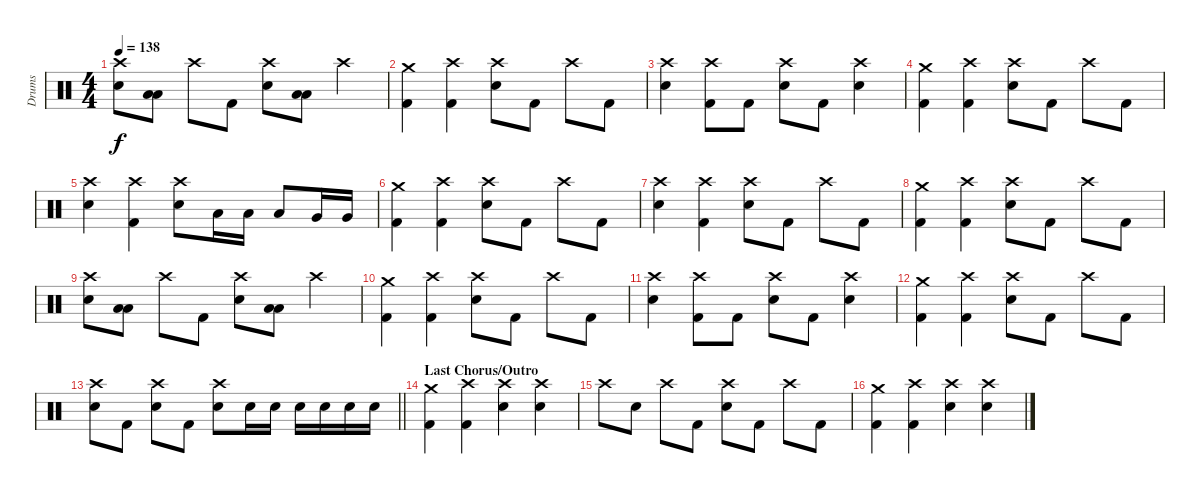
\track ("Drums" "Drums") {instrument percussion}
\staff {score}
\articulation defaults
\ts (4 4)
\tempo 138
\clef neutral
\ks c
("Crash high (hit)" "Electric Snare (hit)").8{dy f} ("Low Tom (hit)" "Low Tom (hit)").8 "Crash high (hit)".8 "Kick (hit) 2".8 ("Crash high (hit)" "Electric Snare (hit)").8 ("Low Tom (hit)" "Low Tom (hit)").8 "Crash high (hit)".4 |
("Crash medium (hit)" "Kick (hit) 2").4 ("Crash high (hit)" "Kick (hit) 2").4 ("Crash high (hit)" "Electric Snare (hit)").8 "Kick (hit) 2".8 "Crash high (hit)".8 "Kick (hit) 2".8 |
("Crash high (hit)" "Electric Snare (hit)").4 ("Crash high (hit)" "Kick (hit) 2").8 "Kick (hit) 2".8 ("Crash high (hit)" "Electric Snare (hit)").8 "Kick (hit) 2".8 ("Crash high (hit)" "Electric Snare (hit)").4 |
("Crash medium (hit)" "Kick (hit) 2").4 ("Crash high (hit)" "Kick (hit) 2").4 ("Crash high (hit)" "Electric Snare (hit)").8 "Kick (hit) 2".8 "Crash high (hit)".8 "Kick (hit) 2".8 |
("Crash high (hit)" "Electric Snare (hit)").4 ("Crash high (hit)" "Kick (hit) 2").4 ("Crash high (hit)" "Electric Snare (hit)").8 "Low Tom (hit)".16 "Low Tom (hit)".16 "Low Tom (hit)".8 "Very Low Tom (hit)".16 "Very Low Tom (hit)".16 |
("Crash medium (hit)" "Kick (hit) 2").4 ("Crash high (hit)" "Kick (hit) 2").4 ("Crash high (hit)" "Electric Snare (hit)").8 "Kick (hit) 2".8 "Crash high (hit)".8 "Kick (hit) 2".8 |
("Crash high (hit)" "Electric Snare (hit)").4 ("Crash high (hit)" "Kick (hit) 2").4 ("Crash high (hit)" "Electric Snare (hit)").8 "Kick (hit) 2".8 "Crash high (hit)".8 "Kick (hit) 2".8 |
("Crash medium (hit)" "Kick (hit) 2").4 ("Crash high (hit)" "Kick (hit) 2").4 ("Crash high (hit)" "Electric Snare (hit)").8 "Kick (hit) 2".8 "Crash high (hit)".8 "Kick (hit) 2".8 |
("Crash high (hit)" "Electric Snare (hit)").8 ("Low Tom (hit)" "Low Tom (hit)").8 "Crash high (hit)".8 "Kick (hit) 2".8 ("Crash high (hit)" "Electric Snare (hit)").8 ("Low Tom (hit)" "Low Tom (hit)").8 "Crash high (hit)".4 |
("Crash medium (hit)" "Kick (hit) 2").4 ("Crash high (hit)" "Kick (hit) 2").4 ("Crash high (hit)" "Electric Snare (hit)").8 "Kick (hit) 2".8 "Crash high (hit)".8 "Kick (hit) 2".8 |
("Crash high (hit)" "Electric Snare (hit)").4 ("Crash high (hit)" "Kick (hit) 2").8 "Kick (hit) 2".8 ("Crash high (hit)" "Electric Snare (hit)").8 "Kick (hit) 2".8 ("Crash high (hit)" "Electric Snare (hit)").4 |
("Crash medium (hit)" "Kick (hit) 2").4 ("Crash high (hit)" "Kick (hit) 2").4 ("Crash high (hit)" "Electric Snare (hit)").8 "Kick (hit) 2".8 "Crash high (hit)".8 "Kick (hit) 2".8 |
\barLineRight lightlight
("Crash high (hit)" "Electric Snare (hit)").8 "Kick (hit) 2".8 ("Crash high (hit)" "Electric Snare (hit)").8 "Kick (hit) 2".8 ("Crash high (hit)" "Electric Snare (hit)").8 "Electric Snare (hit)".16 "Electric Snare (hit)".16 "Electric Snare (hit)".16 "Electric Snare (hit)".16 "Electric Snare (hit)".16 "Electric Snare (hit)".16 |
\section ("" "Last Chorus/Outro")
("Crash medium (hit)" "Kick (hit) 2").4 ("Crash high (hit)" "Kick (hit) 2").4 ("Crash high (hit)" "Electric Snare (hit)").4 ("Crash high (hit)" "Electric Snare (hit)").4 |
"Crash high (hit)".8 "Electric Snare (hit)".8 "Crash high (hit)".8 "Kick (hit) 2".8 ("Crash high (hit)" "Electric Snare (hit)").8 "Kick (hit) 2".8 "Crash high (hit)".8 "Kick (hit) 2".8 |
("Crash medium (hit)" "Kick (hit) 2").4 ("Crash high (hit)" "Kick (hit) 2").4 ("Crash high (hit)" "Electric Snare (hit)").4 ("Crash high (hit)" "Electric Snare (hit)").4
